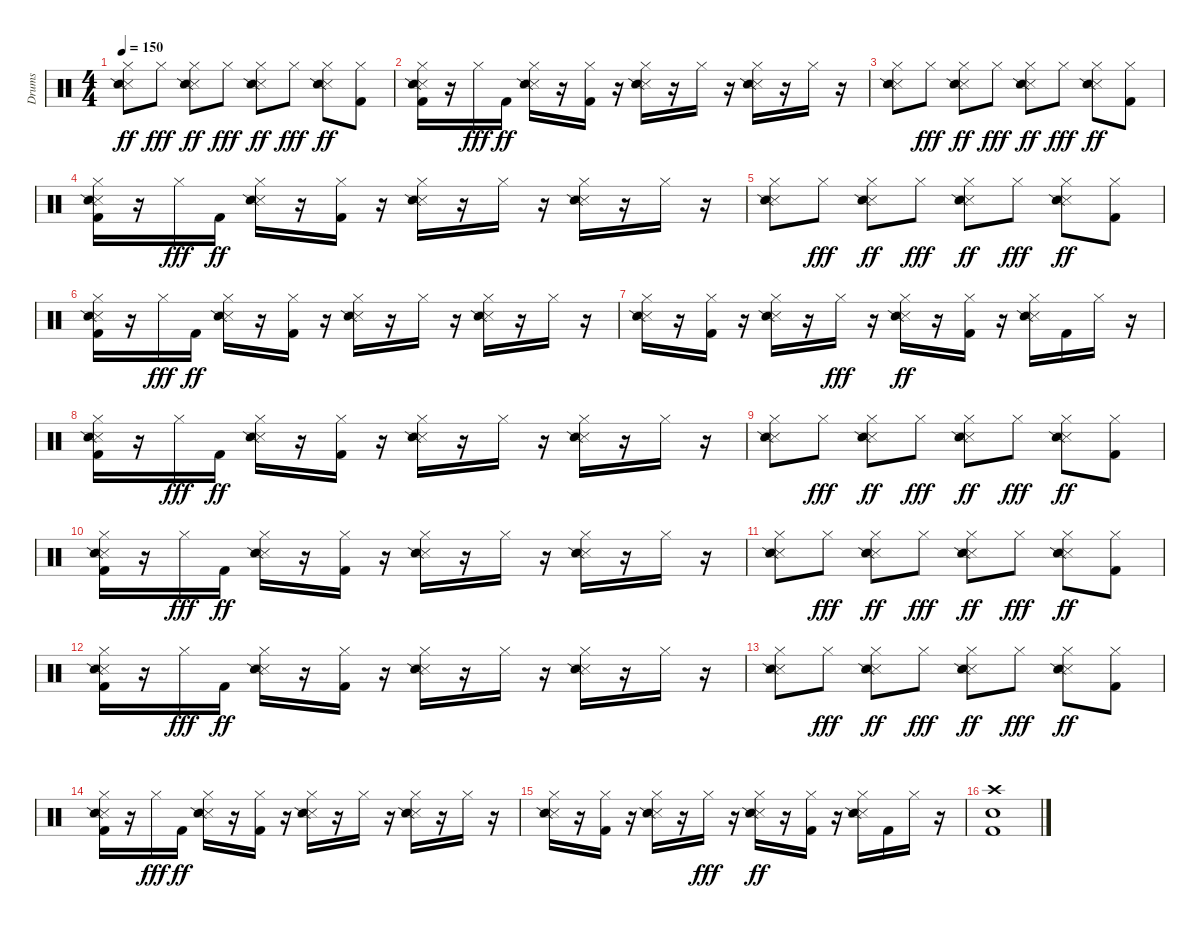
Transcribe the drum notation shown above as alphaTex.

\track ("Drums" "Drums") {instrument percussion}
\staff
\articulation defaults
\ts (4 4)
\tempo 150
\clef neutral
\ks c
("Hi-Hat (closed)" "Snare (side stick) 3" "Snare (side stick) 2").8{dy ff} "Hi-Hat (closed)".8{dy fff} ("Hi-Hat (closed)" "Snare (side stick) 3" "Snare (side stick) 2").8{dy ff} "Hi-Hat (closed)".8{dy fff} ("Hi-Hat (closed)" "Snare (side stick) 3" "Snare (side stick) 2").8{dy ff} "Hi-Hat (closed)".8{dy fff} ("Hi-Hat (closed)" "Snare (side stick) 3" "Snare (side stick) 2").8{dy ff} ("Hi-Hat (closed)" "Kick (hit) 2").8 |
("Hi-Hat (closed)" "Snare (side stick) 3" "Snare (side stick) 2" "Kick (hit) 2").16 r.16 "Hi-Hat (closed)".16{dy fff} "Kick (hit) 2".16{dy ff} ("Hi-Hat (closed)" "Snare (side stick) 3" "Snare (side stick) 2").16 r.16 ("Hi-Hat (closed)" "Kick (hit) 2").16 r.16 ("Hi-Hat (closed)" "Snare (side stick) 3" "Snare (side stick) 2").16 r.16 "Hi-Hat (closed)".16 r.16 ("Hi-Hat (closed)" "Snare (side stick) 3" "Snare (side stick) 2").16 r.16 "Hi-Hat (closed)".16 r.16 |
("Hi-Hat (closed)" "Snare (side stick) 3" "Snare (side stick) 2").8 "Hi-Hat (closed)".8{dy fff} ("Hi-Hat (closed)" "Snare (side stick) 3" "Snare (side stick) 2").8{dy ff} "Hi-Hat (closed)".8{dy fff} ("Hi-Hat (closed)" "Snare (side stick) 3" "Snare (side stick) 2").8{dy ff} "Hi-Hat (closed)".8{dy fff} ("Hi-Hat (closed)" "Snare (side stick) 3" "Snare (side stick) 2").8{dy ff} ("Hi-Hat (closed)" "Kick (hit) 2").8 |
("Hi-Hat (closed)" "Snare (side stick) 3" "Snare (side stick) 2" "Kick (hit) 2").16 r.16 "Hi-Hat (closed)".16{dy fff} "Kick (hit) 2".16{dy ff} ("Hi-Hat (closed)" "Snare (side stick) 3" "Snare (side stick) 2").16 r.16 ("Hi-Hat (closed)" "Kick (hit) 2").16 r.16 ("Hi-Hat (closed)" "Snare (side stick) 3" "Snare (side stick) 2").16 r.16 "Hi-Hat (closed)".16 r.16 ("Hi-Hat (closed)" "Snare (side stick) 3" "Snare (side stick) 2").16 r.16 "Hi-Hat (closed)".16 r.16 |
("Hi-Hat (closed)" "Snare (side stick) 3" "Snare (side stick) 2").8 "Hi-Hat (closed)".8{dy fff} ("Hi-Hat (closed)" "Snare (side stick) 3" "Snare (side stick) 2").8{dy ff} "Hi-Hat (closed)".8{dy fff} ("Hi-Hat (closed)" "Snare (side stick) 3" "Snare (side stick) 2").8{dy ff} "Hi-Hat (closed)".8{dy fff} ("Hi-Hat (closed)" "Snare (side stick) 3" "Snare (side stick) 2").8{dy ff} ("Hi-Hat (closed)" "Kick (hit) 2").8 |
("Hi-Hat (closed)" "Snare (side stick) 3" "Snare (side stick) 2" "Kick (hit) 2").16 r.16 "Hi-Hat (closed)".16{dy fff} "Kick (hit) 2".16{dy ff} ("Hi-Hat (closed)" "Snare (side stick) 3" "Snare (side stick) 2").16 r.16 ("Hi-Hat (closed)" "Kick (hit) 2").16 r.16 ("Hi-Hat (closed)" "Snare (side stick) 3" "Snare (side stick) 2").16 r.16 "Hi-Hat (closed)".16 r.16 ("Hi-Hat (closed)" "Snare (side stick) 3" "Snare (side stick) 2").16 r.16 "Hi-Hat (closed)".16 r.16 |
("Hi-Hat (closed)" "Snare (side stick) 3" "Snare (side stick) 2").16 r.16 ("Hi-Hat (closed)" "Kick (hit) 2").16 r.16 ("Hi-Hat (closed)" "Snare (side stick) 3" "Snare (side stick) 2").16 r.16 "Hi-Hat (closed)".16{dy fff} r.16 ("Hi-Hat (closed)" "Snare (side stick) 3" "Snare (side stick) 2").16{dy ff} r.16 ("Hi-Hat (closed)" "Kick (hit) 2").16 r.16 ("Hi-Hat (closed)" "Snare (side stick) 3" "Snare (side stick) 2").16 "Kick (hit) 2".16 "Hi-Hat (closed)".16 r.16 |
("Hi-Hat (closed)" "Snare (side stick) 3" "Snare (side stick) 2" "Kick (hit) 2").16 r.16 "Hi-Hat (closed)".16{dy fff} "Kick (hit) 2".16{dy ff} ("Hi-Hat (closed)" "Snare (side stick) 3" "Snare (side stick) 2").16 r.16 ("Hi-Hat (closed)" "Kick (hit) 2").16 r.16 ("Hi-Hat (closed)" "Snare (side stick) 3" "Snare (side stick) 2").16 r.16 "Hi-Hat (closed)".16 r.16 ("Hi-Hat (closed)" "Snare (side stick) 3" "Snare (side stick) 2").16 r.16 "Hi-Hat (closed)".16 r.16 |
("Hi-Hat (closed)" "Snare (side stick) 3" "Snare (side stick) 2").8 "Hi-Hat (closed)".8{dy fff} ("Hi-Hat (closed)" "Snare (side stick) 3" "Snare (side stick) 2").8{dy ff} "Hi-Hat (closed)".8{dy fff} ("Hi-Hat (closed)" "Snare (side stick) 3" "Snare (side stick) 2").8{dy ff} "Hi-Hat (closed)".8{dy fff} ("Hi-Hat (closed)" "Snare (side stick) 3" "Snare (side stick) 2").8{dy ff} ("Hi-Hat (closed)" "Kick (hit) 2").8 |
("Hi-Hat (closed)" "Snare (side stick) 3" "Snare (side stick) 2" "Kick (hit) 2").16 r.16 "Hi-Hat (closed)".16{dy fff} "Kick (hit) 2".16{dy ff} ("Hi-Hat (closed)" "Snare (side stick) 3" "Snare (side stick) 2").16 r.16 ("Hi-Hat (closed)" "Kick (hit) 2").16 r.16 ("Hi-Hat (closed)" "Snare (side stick) 3" "Snare (side stick) 2").16 r.16 "Hi-Hat (closed)".16 r.16 ("Hi-Hat (closed)" "Snare (side stick) 3" "Snare (side stick) 2").16 r.16 "Hi-Hat (closed)".16 r.16 |
("Hi-Hat (closed)" "Snare (side stick) 3" "Snare (side stick) 2").8 "Hi-Hat (closed)".8{dy fff} ("Hi-Hat (closed)" "Snare (side stick) 3" "Snare (side stick) 2").8{dy ff} "Hi-Hat (closed)".8{dy fff} ("Hi-Hat (closed)" "Snare (side stick) 3" "Snare (side stick) 2").8{dy ff} "Hi-Hat (closed)".8{dy fff} ("Hi-Hat (closed)" "Snare (side stick) 3" "Snare (side stick) 2").8{dy ff} ("Hi-Hat (closed)" "Kick (hit) 2").8 |
("Hi-Hat (closed)" "Snare (side stick) 3" "Snare (side stick) 2" "Kick (hit) 2").16 r.16 "Hi-Hat (closed)".16{dy fff} "Kick (hit) 2".16{dy ff} ("Hi-Hat (closed)" "Snare (side stick) 3" "Snare (side stick) 2").16 r.16 ("Hi-Hat (closed)" "Kick (hit) 2").16 r.16 ("Hi-Hat (closed)" "Snare (side stick) 3" "Snare (side stick) 2").16 r.16 "Hi-Hat (closed)".16 r.16 ("Hi-Hat (closed)" "Snare (side stick) 3" "Snare (side stick) 2").16 r.16 "Hi-Hat (closed)".16 r.16 |
("Hi-Hat (closed)" "Snare (side stick) 3" "Snare (side stick) 2").8 "Hi-Hat (closed)".8{dy fff} ("Hi-Hat (closed)" "Snare (side stick) 3" "Snare (side stick) 2").8{dy ff} "Hi-Hat (closed)".8{dy fff} ("Hi-Hat (closed)" "Snare (side stick) 3" "Snare (side stick) 2").8{dy ff} "Hi-Hat (closed)".8{dy fff} ("Hi-Hat (closed)" "Snare (side stick) 3" "Snare (side stick) 2").8{dy ff} ("Hi-Hat (closed)" "Kick (hit) 2").8 |
("Hi-Hat (closed)" "Snare (side stick) 3" "Snare (side stick) 2" "Kick (hit) 2").16 r.16 "Hi-Hat (closed)".16{dy fff} "Kick (hit) 2".16{dy ff} ("Hi-Hat (closed)" "Snare (side stick) 3" "Snare (side stick) 2").16 r.16 ("Hi-Hat (closed)" "Kick (hit) 2").16 r.16 ("Hi-Hat (closed)" "Snare (side stick) 3" "Snare (side stick) 2").16 r.16 "Hi-Hat (closed)".16 r.16 ("Hi-Hat (closed)" "Snare (side stick) 3" "Snare (side stick) 2").16 r.16 "Hi-Hat (closed)".16 r.16 |
("Hi-Hat (closed)" "Snare (side stick) 3" "Snare (side stick) 2").16 r.16 ("Hi-Hat (closed)" "Kick (hit) 2").16 r.16 ("Hi-Hat (closed)" "Snare (side stick) 3" "Snare (side stick) 2").16 r.16 "Hi-Hat (closed)".16{dy fff} r.16 ("Hi-Hat (closed)" "Snare (side stick) 3" "Snare (side stick) 2").16{dy ff} r.16 ("Hi-Hat (closed)" "Kick (hit) 2").16 r.16 ("Hi-Hat (closed)" "Snare (side stick) 3" "Snare (side stick) 2").16 "Kick (hit) 2".16 "Hi-Hat (closed)".16 r.16 |
("Crash high (hit)" "Snare (hit) 2" "Kick (hit) 2").1
